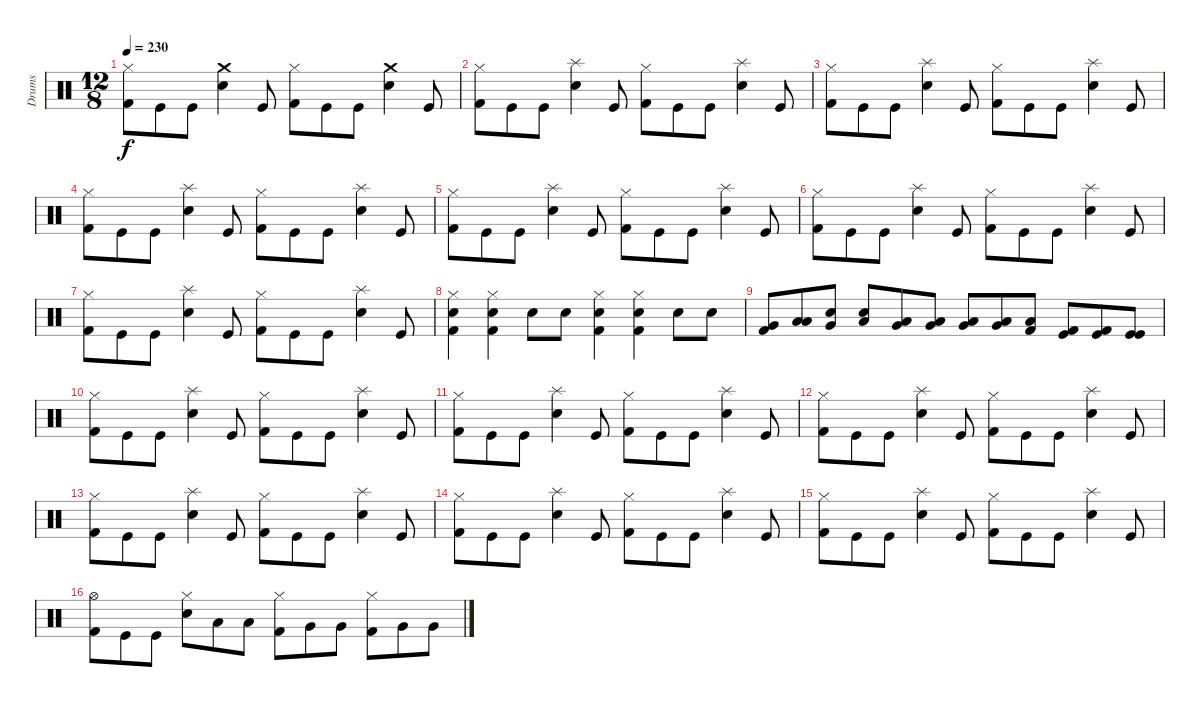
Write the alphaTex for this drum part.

\track ("Drums" "Drums") {instrument percussion}
\staff {score}
\articulation defaults
\ts (12 8)
\tempo 230
\clef neutral
\ks c
("Hi-Hat (closed)" "Kick (hit) 2").8{dy f} "Kick (hit)".8 "Kick (hit)".8 ("Crash medium (hit)" "Snare (hit) 2").4 "Kick (hit)".8 ("Hi-Hat (closed)" "Kick (hit) 2").8 "Kick (hit)".8 "Kick (hit)".8 ("Crash medium (hit)" "Snare (hit) 2").4 "Kick (hit)".8 |
("Hi-Hat (closed)" "Kick (hit) 2").8 "Kick (hit)".8 "Kick (hit)".8 ("Splash (hit)" "Snare (hit) 2").4 "Kick (hit)".8 ("Hi-Hat (closed)" "Kick (hit) 2").8 "Kick (hit)".8 "Kick (hit)".8 ("Splash (hit)" "Snare (hit) 2").4 "Kick (hit)".8 |
("Hi-Hat (closed)" "Kick (hit) 2").8 "Kick (hit)".8 "Kick (hit)".8 ("Splash (hit)" "Snare (hit) 2").4 "Kick (hit)".8 ("Hi-Hat (closed)" "Kick (hit) 2").8 "Kick (hit)".8 "Kick (hit)".8 ("Splash (hit)" "Snare (hit) 2").4 "Kick (hit)".8 |
("Hi-Hat (closed)" "Kick (hit) 2").8 "Kick (hit)".8 "Kick (hit)".8 ("Splash (hit)" "Snare (hit) 2").4 "Kick (hit)".8 ("Hi-Hat (closed)" "Kick (hit) 2").8 "Kick (hit)".8 "Kick (hit)".8 ("Splash (hit)" "Snare (hit) 2").4 "Kick (hit)".8 |
("Hi-Hat (closed)" "Kick (hit) 2").8 "Kick (hit)".8 "Kick (hit)".8 ("Splash (hit)" "Snare (hit) 2").4 "Kick (hit)".8 ("Hi-Hat (closed)" "Kick (hit) 2").8 "Kick (hit)".8 "Kick (hit)".8 ("Splash (hit)" "Snare (hit) 2").4 "Kick (hit)".8 |
("Hi-Hat (closed)" "Kick (hit) 2").8 "Kick (hit)".8 "Kick (hit)".8 ("Splash (hit)" "Snare (hit) 2").4 "Kick (hit)".8 ("Hi-Hat (closed)" "Kick (hit) 2").8 "Kick (hit)".8 "Kick (hit)".8 ("Splash (hit)" "Snare (hit) 2").4 "Kick (hit)".8 |
("Hi-Hat (closed)" "Kick (hit) 2").8 "Kick (hit)".8 "Kick (hit)".8 ("Splash (hit)" "Snare (hit) 2").4 "Kick (hit)".8 ("Hi-Hat (closed)" "Kick (hit) 2").8 "Kick (hit)".8 "Kick (hit)".8 ("Splash (hit)" "Snare (hit) 2").4 "Kick (hit)".8 |
("Kick (hit) 2" "Hi-Hat (closed)" "Snare (hit) 2").4 ("Kick (hit) 2" "Hi-Hat (closed)" "Snare (hit) 2").4 "Snare (hit) 2".8 "Snare (hit) 2".8 ("Kick (hit) 2" "Hi-Hat (closed)" "Snare (hit) 2").4 ("Hi-Hat (closed)" "Snare (hit) 2" "Kick (hit) 2").4 "Snare (hit) 2".8 "Snare (hit) 2".8 |
("Kick (hit) 2" "Very Low Tom (hit)").8 ("Low Floor Tom (hit)" "Low Tom (hit)").8 ("Very Low Tom (hit)" "Snare (hit) 2").8 ("Low Tom (hit)" "Snare (hit) 2").8 ("Very Low Tom (hit)" "Low Tom (hit)").8 ("Very Low Tom (hit)" "Low Tom (hit)").8 ("Low Floor Tom (hit)" "Very Low Tom (hit)").8 ("Low Floor Tom (hit)" "Very Low Tom (hit)").8 ("Kick (hit) 2" "Low Floor Tom (hit)").8 ("Kick (hit)" "Kick (hit) 2").8 ("Kick (hit) 2" "Kick (hit)").8 ("Kick (hit)" "Kick (hit)").8 |
("Hi-Hat (closed)" "Kick (hit) 2").8 "Kick (hit)".8 "Kick (hit)".8 ("Splash (hit)" "Snare (hit) 2").4 "Kick (hit)".8 ("Hi-Hat (closed)" "Kick (hit) 2").8 "Kick (hit)".8 "Kick (hit)".8 ("Splash (hit)" "Snare (hit) 2").4 "Kick (hit)".8 |
("Hi-Hat (closed)" "Kick (hit) 2").8 "Kick (hit)".8 "Kick (hit)".8 ("Splash (hit)" "Snare (hit) 2").4 "Kick (hit)".8 ("Hi-Hat (closed)" "Kick (hit) 2").8 "Kick (hit)".8 "Kick (hit)".8 ("Splash (hit)" "Snare (hit) 2").4 "Kick (hit)".8 |
("Hi-Hat (closed)" "Kick (hit) 2").8 "Kick (hit)".8 "Kick (hit)".8 ("Splash (hit)" "Snare (hit) 2").4 "Kick (hit)".8 ("Hi-Hat (closed)" "Kick (hit) 2").8 "Kick (hit)".8 "Kick (hit)".8 ("Splash (hit)" "Snare (hit) 2").4 "Kick (hit)".8 |
("Hi-Hat (closed)" "Kick (hit) 2").8 "Kick (hit)".8 "Kick (hit)".8 ("Splash (hit)" "Snare (hit) 2").4 "Kick (hit)".8 ("Hi-Hat (closed)" "Kick (hit) 2").8 "Kick (hit)".8 "Kick (hit)".8 ("Splash (hit)" "Snare (hit) 2").4 "Kick (hit)".8 |
("Hi-Hat (closed)" "Kick (hit) 2").8 "Kick (hit)".8 "Kick (hit)".8 ("Splash (hit)" "Snare (hit) 2").4 "Kick (hit)".8 ("Hi-Hat (closed)" "Kick (hit) 2").8 "Kick (hit)".8 "Kick (hit)".8 ("Splash (hit)" "Snare (hit) 2").4 "Kick (hit)".8 |
("Hi-Hat (closed)" "Kick (hit) 2").8 "Kick (hit)".8 "Kick (hit)".8 ("Splash (hit)" "Snare (hit) 2").4 "Kick (hit)".8 ("Hi-Hat (closed)" "Kick (hit) 2").8 "Kick (hit)".8 "Kick (hit)".8 ("Splash (hit)" "Snare (hit) 2").4 "Kick (hit)".8 |
("Hi-Hat (open)" "Kick (hit) 2").8 "Kick (hit)".8 "Kick (hit)".8 ("Hi-Hat (closed)" "Snare (hit) 2").8 "Low Floor Tom (hit)".8 "Low Floor Tom (hit)".8 ("Hi-Hat (closed)" "Kick (hit) 2").8 "Very Low Tom (hit)".8 "Very Low Tom (hit)".8 ("Hi-Hat (closed)" "Kick (hit) 2").8 "Very Low Tom (hit)".8 "Very Low Tom (hit)".8
